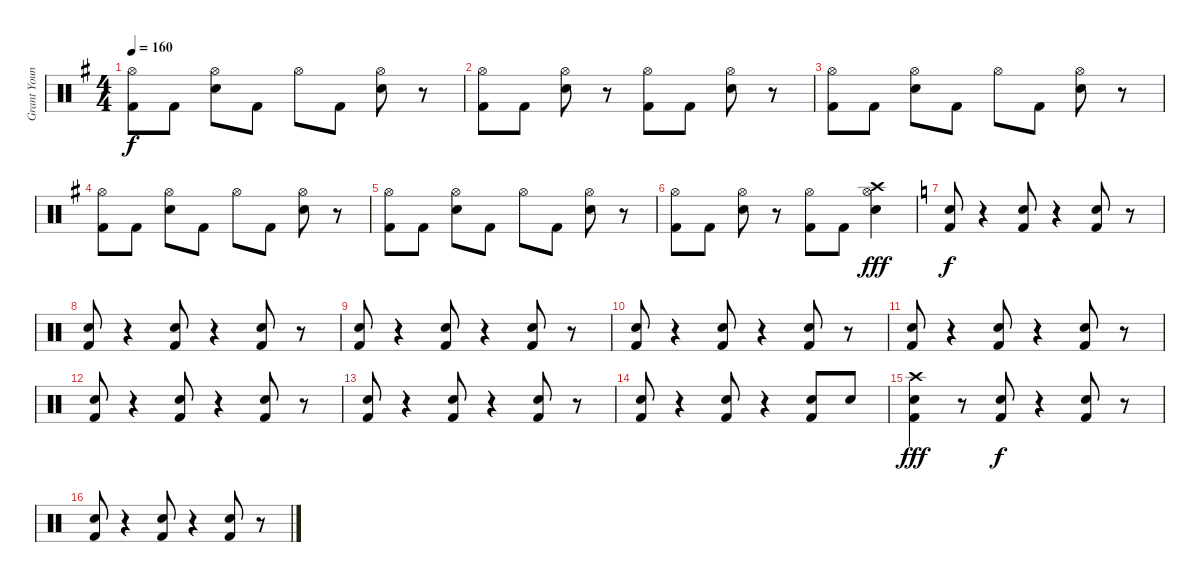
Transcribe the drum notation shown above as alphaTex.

\track ("Grant Young" "Grant Youn") {instrument percussion}
\staff {score}
\articulation defaults
\ts (4 4)
\tempo 160
\clef neutral
\ks g
("Hi-Hat (open)" "Kick (hit) 2").8{dy f} "Kick (hit) 2".8 ("Hi-Hat (open)" "Snare (hit) 2").8 "Kick (hit) 2".8 "Hi-Hat (open)".8 "Kick (hit) 2".8 ("Hi-Hat (open)" "Snare (hit) 2").8 r.8 |
("Hi-Hat (open)" "Kick (hit) 2").8 "Kick (hit) 2".8 ("Hi-Hat (open)" "Snare (hit) 2").8 r.8 ("Kick (hit) 2" "Hi-Hat (open)").8 "Kick (hit) 2".8 ("Hi-Hat (open)" "Snare (hit) 2").8 r.8 |
("Hi-Hat (open)" "Kick (hit) 2").8 "Kick (hit) 2".8 ("Hi-Hat (open)" "Snare (hit) 2").8 "Kick (hit) 2".8 "Hi-Hat (open)".8 "Kick (hit) 2".8 ("Hi-Hat (open)" "Snare (hit) 2").8 r.8 |
("Hi-Hat (open)" "Kick (hit) 2").8 "Kick (hit) 2".8 ("Hi-Hat (open)" "Snare (hit) 2").8 "Kick (hit) 2".8 "Hi-Hat (open)".8 "Kick (hit) 2".8 ("Hi-Hat (open)" "Snare (hit) 2").8 r.8 |
("Hi-Hat (open)" "Kick (hit) 2").8 "Kick (hit) 2".8 ("Hi-Hat (open)" "Snare (hit) 2").8 "Kick (hit) 2".8 "Hi-Hat (open)".8 "Kick (hit) 2".8 ("Hi-Hat (open)" "Snare (hit) 2").8 r.8 |
("Hi-Hat (open)" "Kick (hit) 2").8 "Kick (hit) 2".8 ("Hi-Hat (open)" "Snare (hit) 2").8 r.8 ("Kick (hit) 2" "Hi-Hat (open)").8 "Kick (hit) 2".8 ("Crash high (hit)" "Hi-Hat (open)" "Snare (hit) 2").4{dy fff} |
\ks c
("Kick (hit) 2" "Snare (hit) 2").8{dy f} r.4 ("Kick (hit) 2" "Snare (hit) 2").8 r.4 ("Kick (hit) 2" "Snare (hit) 2").8 r.8 |
("Kick (hit) 2" "Snare (hit) 2").8 r.4 ("Kick (hit) 2" "Snare (hit) 2").8 r.4 ("Kick (hit) 2" "Snare (hit) 2").8 r.8 |
("Kick (hit) 2" "Snare (hit) 2").8 r.4 ("Kick (hit) 2" "Snare (hit) 2").8 r.4 ("Kick (hit) 2" "Snare (hit) 2").8 r.8 |
("Kick (hit) 2" "Snare (hit) 2").8 r.4 ("Kick (hit) 2" "Snare (hit) 2").8 r.4 ("Kick (hit) 2" "Snare (hit) 2").8 r.8 |
("Kick (hit) 2" "Snare (hit) 2").8 r.4 ("Kick (hit) 2" "Snare (hit) 2").8 r.4 ("Kick (hit) 2" "Snare (hit) 2").8 r.8 |
("Kick (hit) 2" "Snare (hit) 2").8 r.4 ("Kick (hit) 2" "Snare (hit) 2").8 r.4 ("Kick (hit) 2" "Snare (hit) 2").8 r.8 |
("Kick (hit) 2" "Snare (hit) 2").8 r.4 ("Kick (hit) 2" "Snare (hit) 2").8 r.4 ("Kick (hit) 2" "Snare (hit) 2").8 r.8 |
("Kick (hit) 2" "Snare (hit) 2").8 r.4 ("Kick (hit) 2" "Snare (hit) 2").8 r.4 ("Kick (hit) 2" "Snare (hit) 2").8 "Snare (hit) 2".8 |
("Crash high (hit)" "Kick (hit) 2" "Snare (hit) 2").4{dy fff} r.8 ("Kick (hit) 2" "Snare (hit) 2").8{dy f} r.4 ("Kick (hit) 2" "Snare (hit) 2").8 r.8 |
("Kick (hit) 2" "Snare (hit) 2").8 r.4 ("Kick (hit) 2" "Snare (hit) 2").8 r.4 ("Kick (hit) 2" "Snare (hit) 2").8 r.8
